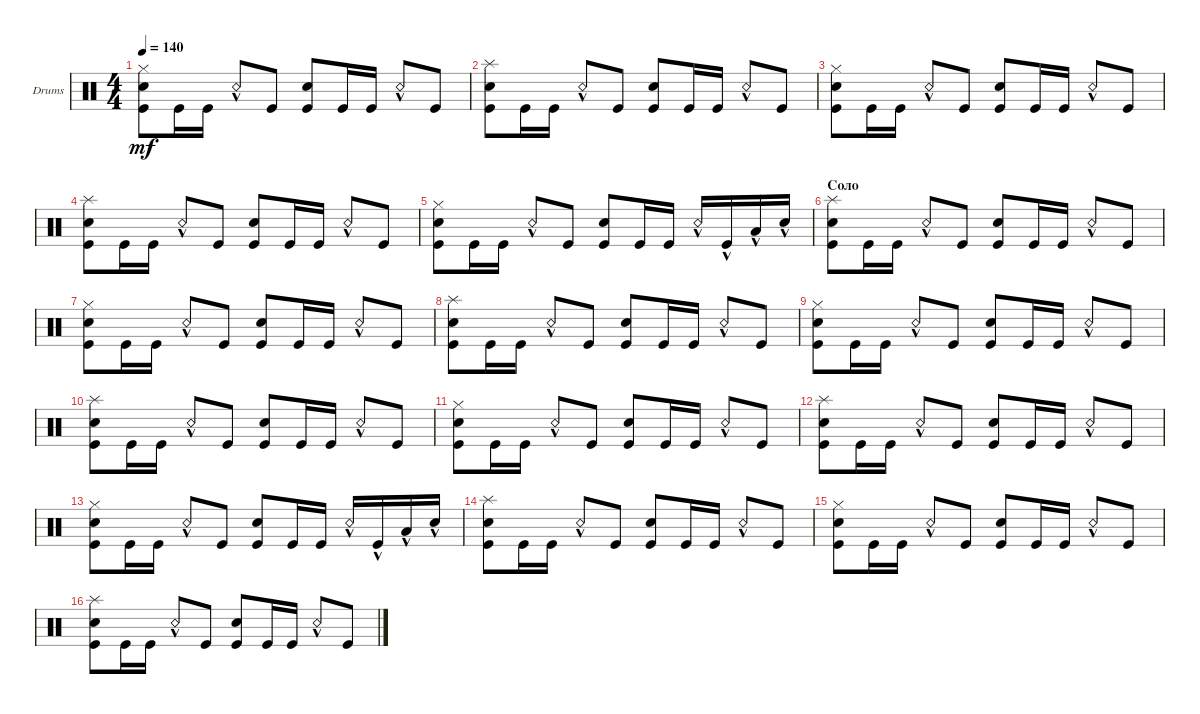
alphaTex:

\bracketExtendMode groupsimilarinstruments
\firstSystemTrackNameOrientation horizontal
\otherSystemsTrackNameOrientation horizontal
\track ("БАРАБАНЫ" "Drums") {solo instrument percussion}
\staff {score}
\articulation defaults
\ts (4 4)
\tempo 140
\clef neutral
\ks c
("Kick (hit)" "Snare (hit) 2" "Hi-Hat (closed)").8{dy mf} "Kick (hit)".16 "Kick (hit)".16 "Snare (rim shot)"{hac}.8 "Kick (hit)".8 ("Kick (hit)" "Snare (hit) 2").8 "Kick (hit)".16 "Kick (hit)".16 "Snare (rim shot)"{hac}.8 "Kick (hit)".8 |
("Kick (hit)" "Snare (hit) 2" "Splash (hit)").8 "Kick (hit)".16 "Kick (hit)".16 "Snare (rim shot)"{hac}.8 "Kick (hit)".8 ("Kick (hit)" "Snare (hit) 2").8 "Kick (hit)".16 "Kick (hit)".16 "Snare (rim shot)"{hac}.8 "Kick (hit)".8 |
("Kick (hit)" "Snare (hit) 2" "Hi-Hat (closed)").8 "Kick (hit)".16 "Kick (hit)".16 "Snare (rim shot)"{hac}.8 "Kick (hit)".8 ("Kick (hit)" "Snare (hit) 2").8 "Kick (hit)".16 "Kick (hit)".16 "Snare (rim shot)"{hac}.8 "Kick (hit)".8 |
("Kick (hit)" "Snare (hit) 2" "Splash (hit)").8 "Kick (hit)".16 "Kick (hit)".16 "Snare (rim shot)"{hac}.8 "Kick (hit)".8 ("Kick (hit)" "Snare (hit) 2").8 "Kick (hit)".16 "Kick (hit)".16 "Snare (rim shot)"{hac}.8 "Kick (hit)".8 |
("Kick (hit)" "Snare (hit) 2" "Hi-Hat (closed)").8 "Kick (hit)".16 "Kick (hit)".16 "Snare (rim shot)"{hac}.8 "Kick (hit)".8 ("Kick (hit)" "Snare (hit) 2").8 "Kick (hit)".16 "Kick (hit)".16 "Snare (rim shot)"{hac}.16 "Kick (hit)"{hac}.16 "Low Tom (hit)"{hac}.16 "Snare (hit) 2"{hac}.16 |
\section ("" "Соло")
("Kick (hit)" "Snare (hit) 2" "Splash (hit)").8 "Kick (hit)".16 "Kick (hit)".16 "Snare (rim shot)"{hac}.8 "Kick (hit)".8 ("Kick (hit)" "Snare (hit) 2").8 "Kick (hit)".16 "Kick (hit)".16 "Snare (rim shot)"{hac}.8 "Kick (hit)".8 |
("Kick (hit)" "Snare (hit) 2" "Hi-Hat (closed)").8 "Kick (hit)".16 "Kick (hit)".16 "Snare (rim shot)"{hac}.8 "Kick (hit)".8 ("Kick (hit)" "Snare (hit) 2").8 "Kick (hit)".16 "Kick (hit)".16 "Snare (rim shot)"{hac}.8 "Kick (hit)".8 |
("Kick (hit)" "Snare (hit) 2" "Splash (hit)").8 "Kick (hit)".16 "Kick (hit)".16 "Snare (rim shot)"{hac}.8 "Kick (hit)".8 ("Kick (hit)" "Snare (hit) 2").8 "Kick (hit)".16 "Kick (hit)".16 "Snare (rim shot)"{hac}.8 "Kick (hit)".8 |
("Kick (hit)" "Snare (hit) 2" "Hi-Hat (closed)").8 "Kick (hit)".16 "Kick (hit)".16 "Snare (rim shot)"{hac}.8 "Kick (hit)".8 ("Kick (hit)" "Snare (hit) 2").8 "Kick (hit)".16 "Kick (hit)".16 "Snare (rim shot)"{hac}.8 "Kick (hit)".8 |
("Kick (hit)" "Snare (hit) 2" "Splash (hit)").8 "Kick (hit)".16 "Kick (hit)".16 "Snare (rim shot)"{hac}.8 "Kick (hit)".8 ("Kick (hit)" "Snare (hit) 2").8 "Kick (hit)".16 "Kick (hit)".16 "Snare (rim shot)"{hac}.8 "Kick (hit)".8 |
("Kick (hit)" "Snare (hit) 2" "Hi-Hat (closed)").8 "Kick (hit)".16 "Kick (hit)".16 "Snare (rim shot)"{hac}.8 "Kick (hit)".8 ("Kick (hit)" "Snare (hit) 2").8 "Kick (hit)".16 "Kick (hit)".16 "Snare (rim shot)"{hac}.8 "Kick (hit)".8 |
("Kick (hit)" "Snare (hit) 2" "Splash (hit)").8 "Kick (hit)".16 "Kick (hit)".16 "Snare (rim shot)"{hac}.8 "Kick (hit)".8 ("Kick (hit)" "Snare (hit) 2").8 "Kick (hit)".16 "Kick (hit)".16 "Snare (rim shot)"{hac}.8 "Kick (hit)".8 |
("Kick (hit)" "Snare (hit) 2" "Hi-Hat (closed)").8 "Kick (hit)".16 "Kick (hit)".16 "Snare (rim shot)"{hac}.8 "Kick (hit)".8 ("Kick (hit)" "Snare (hit) 2").8 "Kick (hit)".16 "Kick (hit)".16 "Snare (rim shot)"{hac}.16 "Kick (hit)"{hac}.16 "Low Tom (hit)"{hac}.16 "Snare (hit) 2"{hac}.16 |
("Kick (hit)" "Snare (hit) 2" "Splash (hit)").8 "Kick (hit)".16 "Kick (hit)".16 "Snare (rim shot)"{hac}.8 "Kick (hit)".8 ("Kick (hit)" "Snare (hit) 2").8 "Kick (hit)".16 "Kick (hit)".16 "Snare (rim shot)"{hac}.8 "Kick (hit)".8 |
("Kick (hit)" "Snare (hit) 2" "Hi-Hat (closed)").8 "Kick (hit)".16 "Kick (hit)".16 "Snare (rim shot)"{hac}.8 "Kick (hit)".8 ("Kick (hit)" "Snare (hit) 2").8 "Kick (hit)".16 "Kick (hit)".16 "Snare (rim shot)"{hac}.8 "Kick (hit)".8 |
("Kick (hit)" "Snare (hit) 2" "Splash (hit)").8 "Kick (hit)".16 "Kick (hit)".16 "Snare (rim shot)"{hac}.8 "Kick (hit)".8 ("Kick (hit)" "Snare (hit) 2").8 "Kick (hit)".16 "Kick (hit)".16 "Snare (rim shot)"{hac}.8 "Kick (hit)".8
